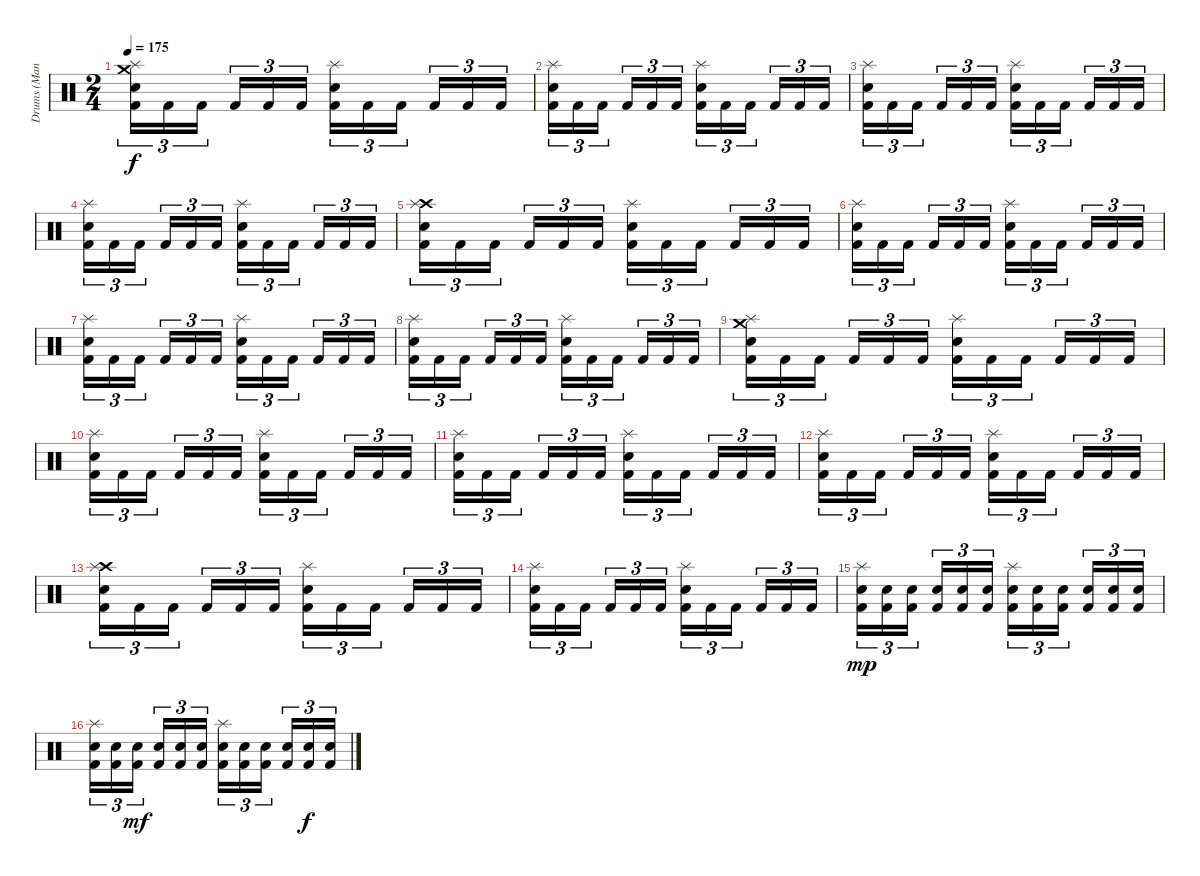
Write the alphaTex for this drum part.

\track ("Drums (Mancino)" "Drums (Man") {instrument percussion}
\staff {score}
\articulation defaults
\ts (2 4)
\tempo 175
\clef neutral
\ks c
("Crash medium (hit)" "Splash (hit)" "Electric Snare (hit)" "Kick (hit) 2").16{tu (3 2) dy f} "Kick (hit) 2".16{tu (3 2)} "Kick (hit) 2".16{tu (3 2)} "Kick (hit) 2".16{tu (3 2)} "Kick (hit) 2".16{tu (3 2)} "Kick (hit) 2".16{tu (3 2)} ("Splash (hit)" "Electric Snare (hit)" "Kick (hit) 2").16{tu (3 2)} "Kick (hit) 2".16{tu (3 2)} "Kick (hit) 2".16{tu (3 2)} "Kick (hit) 2".16{tu (3 2)} "Kick (hit) 2".16{tu (3 2)} "Kick (hit) 2".16{tu (3 2)} |
("Splash (hit)" "Electric Snare (hit)" "Kick (hit) 2").16{tu (3 2)} "Kick (hit) 2".16{tu (3 2)} "Kick (hit) 2".16{tu (3 2)} "Kick (hit) 2".16{tu (3 2)} "Kick (hit) 2".16{tu (3 2)} "Kick (hit) 2".16{tu (3 2)} ("Splash (hit)" "Electric Snare (hit)" "Kick (hit) 2").16{tu (3 2)} "Kick (hit) 2".16{tu (3 2)} "Kick (hit) 2".16{tu (3 2)} "Kick (hit) 2".16{tu (3 2)} "Kick (hit) 2".16{tu (3 2)} "Kick (hit) 2".16{tu (3 2)} |
("Splash (hit)" "Electric Snare (hit)" "Kick (hit) 2").16{tu (3 2)} "Kick (hit) 2".16{tu (3 2)} "Kick (hit) 2".16{tu (3 2)} "Kick (hit) 2".16{tu (3 2)} "Kick (hit) 2".16{tu (3 2)} "Kick (hit) 2".16{tu (3 2)} ("Splash (hit)" "Electric Snare (hit)" "Kick (hit) 2").16{tu (3 2)} "Kick (hit) 2".16{tu (3 2)} "Kick (hit) 2".16{tu (3 2)} "Kick (hit) 2".16{tu (3 2)} "Kick (hit) 2".16{tu (3 2)} "Kick (hit) 2".16{tu (3 2)} |
("Splash (hit)" "Electric Snare (hit)" "Kick (hit) 2").16{tu (3 2)} "Kick (hit) 2".16{tu (3 2)} "Kick (hit) 2".16{tu (3 2)} "Kick (hit) 2".16{tu (3 2)} "Kick (hit) 2".16{tu (3 2)} "Kick (hit) 2".16{tu (3 2)} ("Splash (hit)" "Electric Snare (hit)" "Kick (hit) 2").16{tu (3 2)} "Kick (hit) 2".16{tu (3 2)} "Kick (hit) 2".16{tu (3 2)} "Kick (hit) 2".16{tu (3 2)} "Kick (hit) 2".16{tu (3 2)} "Kick (hit) 2".16{tu (3 2)} |
("Crash high (hit)" "Splash (hit)" "Electric Snare (hit)" "Kick (hit) 2").16{tu (3 2)} "Kick (hit) 2".16{tu (3 2)} "Kick (hit) 2".16{tu (3 2)} "Kick (hit) 2".16{tu (3 2)} "Kick (hit) 2".16{tu (3 2)} "Kick (hit) 2".16{tu (3 2)} ("Splash (hit)" "Electric Snare (hit)" "Kick (hit) 2").16{tu (3 2)} "Kick (hit) 2".16{tu (3 2)} "Kick (hit) 2".16{tu (3 2)} "Kick (hit) 2".16{tu (3 2)} "Kick (hit) 2".16{tu (3 2)} "Kick (hit) 2".16{tu (3 2)} |
("Splash (hit)" "Electric Snare (hit)" "Kick (hit) 2").16{tu (3 2)} "Kick (hit) 2".16{tu (3 2)} "Kick (hit) 2".16{tu (3 2)} "Kick (hit) 2".16{tu (3 2)} "Kick (hit) 2".16{tu (3 2)} "Kick (hit) 2".16{tu (3 2)} ("Splash (hit)" "Electric Snare (hit)" "Kick (hit) 2").16{tu (3 2)} "Kick (hit) 2".16{tu (3 2)} "Kick (hit) 2".16{tu (3 2)} "Kick (hit) 2".16{tu (3 2)} "Kick (hit) 2".16{tu (3 2)} "Kick (hit) 2".16{tu (3 2)} |
("Splash (hit)" "Electric Snare (hit)" "Kick (hit) 2").16{tu (3 2)} "Kick (hit) 2".16{tu (3 2)} "Kick (hit) 2".16{tu (3 2)} "Kick (hit) 2".16{tu (3 2)} "Kick (hit) 2".16{tu (3 2)} "Kick (hit) 2".16{tu (3 2)} ("Splash (hit)" "Electric Snare (hit)" "Kick (hit) 2").16{tu (3 2)} "Kick (hit) 2".16{tu (3 2)} "Kick (hit) 2".16{tu (3 2)} "Kick (hit) 2".16{tu (3 2)} "Kick (hit) 2".16{tu (3 2)} "Kick (hit) 2".16{tu (3 2)} |
("Splash (hit)" "Electric Snare (hit)" "Kick (hit) 2").16{tu (3 2)} "Kick (hit) 2".16{tu (3 2)} "Kick (hit) 2".16{tu (3 2)} "Kick (hit) 2".16{tu (3 2)} "Kick (hit) 2".16{tu (3 2)} "Kick (hit) 2".16{tu (3 2)} ("Splash (hit)" "Electric Snare (hit)" "Kick (hit) 2").16{tu (3 2)} "Kick (hit) 2".16{tu (3 2)} "Kick (hit) 2".16{tu (3 2)} "Kick (hit) 2".16{tu (3 2)} "Kick (hit) 2".16{tu (3 2)} "Kick (hit) 2".16{tu (3 2)} |
("Crash medium (hit)" "Splash (hit)" "Electric Snare (hit)" "Kick (hit) 2").16{tu (3 2)} "Kick (hit) 2".16{tu (3 2)} "Kick (hit) 2".16{tu (3 2)} "Kick (hit) 2".16{tu (3 2)} "Kick (hit) 2".16{tu (3 2)} "Kick (hit) 2".16{tu (3 2)} ("Splash (hit)" "Electric Snare (hit)" "Kick (hit) 2").16{tu (3 2)} "Kick (hit) 2".16{tu (3 2)} "Kick (hit) 2".16{tu (3 2)} "Kick (hit) 2".16{tu (3 2)} "Kick (hit) 2".16{tu (3 2)} "Kick (hit) 2".16{tu (3 2)} |
("Splash (hit)" "Electric Snare (hit)" "Kick (hit) 2").16{tu (3 2)} "Kick (hit) 2".16{tu (3 2)} "Kick (hit) 2".16{tu (3 2)} "Kick (hit) 2".16{tu (3 2)} "Kick (hit) 2".16{tu (3 2)} "Kick (hit) 2".16{tu (3 2)} ("Splash (hit)" "Electric Snare (hit)" "Kick (hit) 2").16{tu (3 2)} "Kick (hit) 2".16{tu (3 2)} "Kick (hit) 2".16{tu (3 2)} "Kick (hit) 2".16{tu (3 2)} "Kick (hit) 2".16{tu (3 2)} "Kick (hit) 2".16{tu (3 2)} |
("Splash (hit)" "Electric Snare (hit)" "Kick (hit) 2").16{tu (3 2)} "Kick (hit) 2".16{tu (3 2)} "Kick (hit) 2".16{tu (3 2)} "Kick (hit) 2".16{tu (3 2)} "Kick (hit) 2".16{tu (3 2)} "Kick (hit) 2".16{tu (3 2)} ("Splash (hit)" "Electric Snare (hit)" "Kick (hit) 2").16{tu (3 2)} "Kick (hit) 2".16{tu (3 2)} "Kick (hit) 2".16{tu (3 2)} "Kick (hit) 2".16{tu (3 2)} "Kick (hit) 2".16{tu (3 2)} "Kick (hit) 2".16{tu (3 2)} |
("Splash (hit)" "Electric Snare (hit)" "Kick (hit) 2").16{tu (3 2)} "Kick (hit) 2".16{tu (3 2)} "Kick (hit) 2".16{tu (3 2)} "Kick (hit) 2".16{tu (3 2)} "Kick (hit) 2".16{tu (3 2)} "Kick (hit) 2".16{tu (3 2)} ("Splash (hit)" "Electric Snare (hit)" "Kick (hit) 2").16{tu (3 2)} "Kick (hit) 2".16{tu (3 2)} "Kick (hit) 2".16{tu (3 2)} "Kick (hit) 2".16{tu (3 2)} "Kick (hit) 2".16{tu (3 2)} "Kick (hit) 2".16{tu (3 2)} |
("Crash high (hit)" "Splash (hit)" "Electric Snare (hit)" "Kick (hit) 2").16{tu (3 2)} "Kick (hit) 2".16{tu (3 2)} "Kick (hit) 2".16{tu (3 2)} "Kick (hit) 2".16{tu (3 2)} "Kick (hit) 2".16{tu (3 2)} "Kick (hit) 2".16{tu (3 2)} ("Splash (hit)" "Electric Snare (hit)" "Kick (hit) 2").16{tu (3 2)} "Kick (hit) 2".16{tu (3 2)} "Kick (hit) 2".16{tu (3 2)} "Kick (hit) 2".16{tu (3 2)} "Kick (hit) 2".16{tu (3 2)} "Kick (hit) 2".16{tu (3 2)} |
("Splash (hit)" "Electric Snare (hit)" "Kick (hit) 2").16{tu (3 2)} "Kick (hit) 2".16{tu (3 2)} "Kick (hit) 2".16{tu (3 2)} "Kick (hit) 2".16{tu (3 2)} "Kick (hit) 2".16{tu (3 2)} "Kick (hit) 2".16{tu (3 2)} ("Splash (hit)" "Electric Snare (hit)" "Kick (hit) 2").16{tu (3 2)} "Kick (hit) 2".16{tu (3 2)} "Kick (hit) 2".16{tu (3 2)} "Kick (hit) 2".16{tu (3 2)} "Kick (hit) 2".16{tu (3 2)} "Kick (hit) 2".16{tu (3 2)} |
("Splash (hit)" "Electric Snare (hit)" "Kick (hit) 2").16{tu (3 2) dy mp} ("Electric Snare (hit)" "Kick (hit) 2").16{tu (3 2)} ("Electric Snare (hit)" "Kick (hit) 2").16{tu (3 2)} ("Electric Snare (hit)" "Kick (hit) 2").16{tu (3 2)} ("Electric Snare (hit)" "Kick (hit) 2").16{tu (3 2)} ("Electric Snare (hit)" "Kick (hit) 2").16{tu (3 2)} ("Splash (hit)" "Electric Snare (hit)" "Kick (hit) 2").16{tu (3 2)} ("Electric Snare (hit)" "Kick (hit) 2").16{tu (3 2)} ("Electric Snare (hit)" "Kick (hit) 2").16{tu (3 2)} ("Electric Snare (hit)" "Kick (hit) 2").16{tu (3 2)} ("Electric Snare (hit)" "Kick (hit) 2").16{tu (3 2)} ("Electric Snare (hit)" "Kick (hit) 2").16{tu (3 2)} |
("Splash (hit)" "Electric Snare (hit)" "Kick (hit) 2").16{tu (3 2)} ("Electric Snare (hit)" "Kick (hit) 2").16{tu (3 2)} ("Electric Snare (hit)" "Kick (hit) 2").16{tu (3 2) dy mf} ("Electric Snare (hit)" "Kick (hit) 2").16{tu (3 2)} ("Electric Snare (hit)" "Kick (hit) 2").16{tu (3 2)} ("Electric Snare (hit)" "Kick (hit) 2").16{tu (3 2)} ("Splash (hit)" "Electric Snare (hit)" "Kick (hit) 2").16{tu (3 2)} ("Electric Snare (hit)" "Kick (hit) 2").16{tu (3 2)} ("Electric Snare (hit)" "Kick (hit) 2").16{tu (3 2)} ("Electric Snare (hit)" "Kick (hit) 2").16{tu (3 2)} ("Electric Snare (hit)" "Kick (hit) 2").16{tu (3 2) dy f} ("Electric Snare (hit)" "Kick (hit) 2").16{tu (3 2)}
